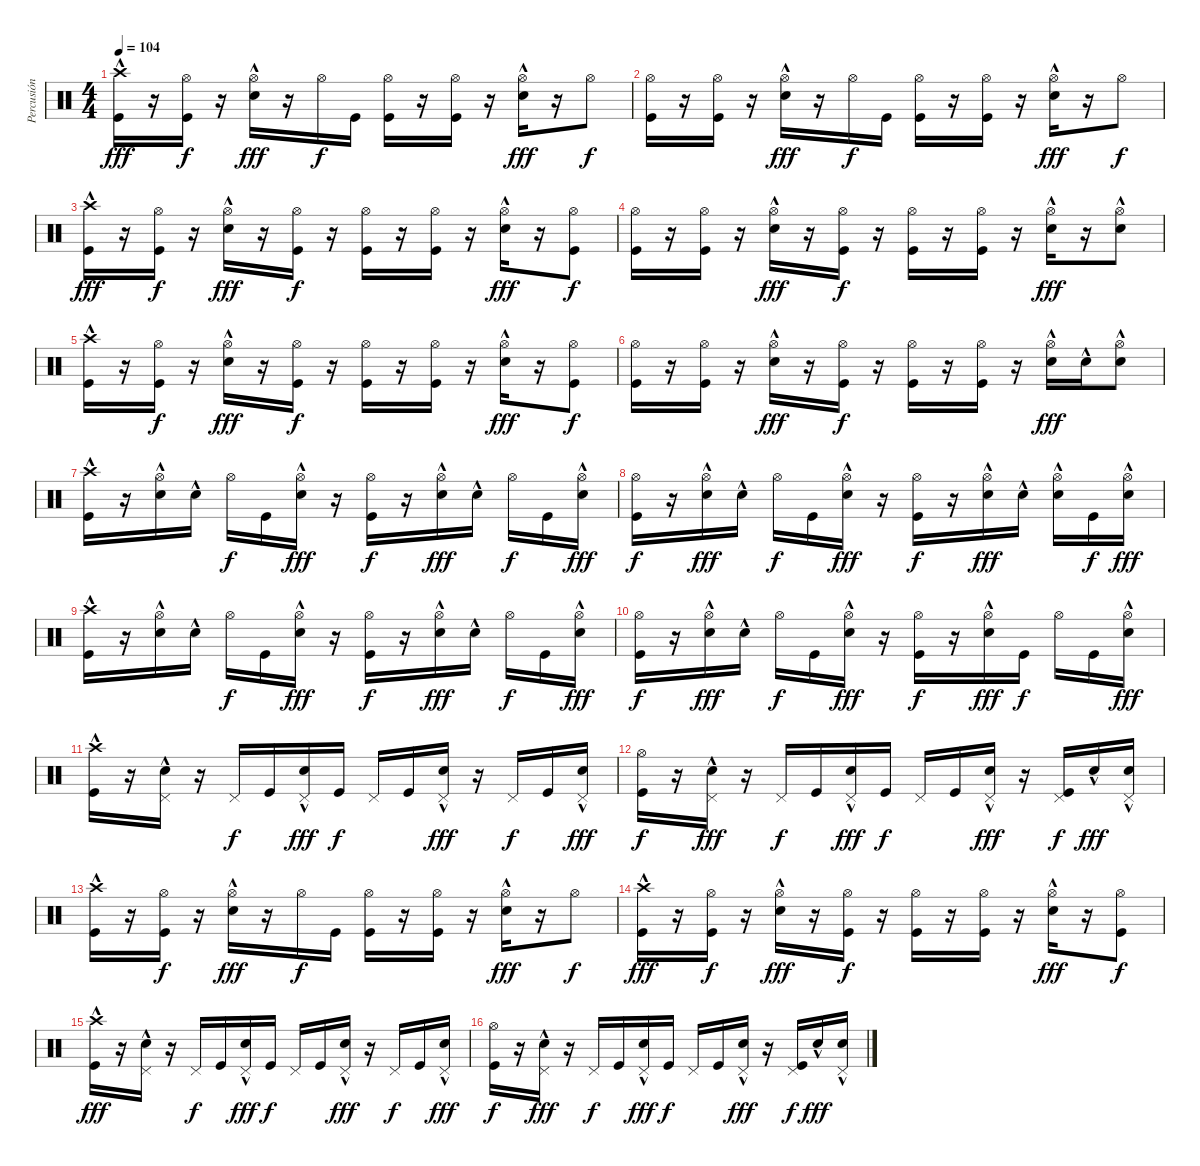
\track ("Percusión" "Percusión") {instrument percussion}
\staff {score}
\articulation defaults
\ts (4 4)
\tempo 104
\clef neutral
\ks c
("Crash high (hit)"{hac} "Kick (hit)").16{dy fff} r.16 ("Hi-Hat (open)" "Kick (hit)").16{dy f} r.16 ("Hi-Hat (open)" "Snare (hit) 2"{hac}).16{dy fff} r.16 "Hi-Hat (open)".16{dy f} "Kick (hit)".16 ("Hi-Hat (open)" "Kick (hit)").16 r.16 ("Hi-Hat (open)" "Kick (hit)").16 r.16 ("Hi-Hat (open)" "Snare (hit) 2"{hac}).16{dy fff} r.16 "Hi-Hat (open)".8{dy f} |
("Hi-Hat (open)" "Kick (hit)").16 r.16 ("Hi-Hat (open)" "Kick (hit)").16 r.16 ("Hi-Hat (open)" "Snare (hit) 2"{hac}).16{dy fff} r.16 "Hi-Hat (open)".16{dy f} "Kick (hit)".16 ("Hi-Hat (open)" "Kick (hit)").16 r.16 ("Hi-Hat (open)" "Kick (hit)").16 r.16 ("Hi-Hat (open)" "Snare (hit) 2"{hac}).16{dy fff} r.16 "Hi-Hat (open)".8{dy f} |
("Crash high (hit)"{hac} "Kick (hit)").16{dy fff} r.16 ("Hi-Hat (open)" "Kick (hit)").16{dy f} r.16 ("Hi-Hat (open)" "Snare (hit) 2"{hac}).16{dy fff} r.16 ("Hi-Hat (open)" "Kick (hit)").16{dy f} r.16 ("Hi-Hat (open)" "Kick (hit)").16 r.16 ("Hi-Hat (open)" "Kick (hit)").16 r.16 ("Hi-Hat (open)" "Snare (hit) 2"{hac}).16{dy fff} r.16 ("Hi-Hat (open)" "Kick (hit)").8{dy f} |
("Hi-Hat (open)" "Kick (hit)").16 r.16 ("Hi-Hat (open)" "Kick (hit)").16 r.16 ("Hi-Hat (open)" "Snare (hit) 2"{hac}).16{dy fff} r.16 ("Hi-Hat (open)" "Kick (hit)").16{dy f} r.16 ("Hi-Hat (open)" "Kick (hit)").16 r.16 ("Hi-Hat (open)" "Kick (hit)").16 r.16 ("Hi-Hat (open)" "Snare (hit) 2"{hac}).16{dy fff} r.16 ("Hi-Hat (open)" "Snare (hit) 2"{hac}).8 |
("Crash high (hit)"{hac} "Kick (hit)").16 r.16 ("Hi-Hat (open)" "Kick (hit)").16{dy f} r.16 ("Hi-Hat (open)" "Snare (hit) 2"{hac}).16{dy fff} r.16 ("Hi-Hat (open)" "Kick (hit)").16{dy f} r.16 ("Hi-Hat (open)" "Kick (hit)").16 r.16 ("Hi-Hat (open)" "Kick (hit)").16 r.16 ("Hi-Hat (open)" "Snare (hit) 2"{hac}).16{dy fff} r.16 ("Hi-Hat (open)" "Kick (hit)").8{dy f} |
("Hi-Hat (open)" "Kick (hit)").16 r.16 ("Hi-Hat (open)" "Kick (hit)").16 r.16 ("Hi-Hat (open)" "Snare (hit) 2"{hac}).16{dy fff} r.16 ("Hi-Hat (open)" "Kick (hit)").16{dy f} r.16 ("Hi-Hat (open)" "Kick (hit)").16 r.16 ("Hi-Hat (open)" "Kick (hit)").16 r.16 ("Hi-Hat (open)" "Snare (hit) 2"{hac}).16{dy fff} "Snare (hit) 2"{hac}.16 ("Hi-Hat (open)" "Snare (hit) 2"{hac}).8 |
("Crash high (hit)"{hac} "Kick (hit)").16 r.16 ("Hi-Hat (open)" "Snare (hit) 2"{hac}).16 "Snare (hit) 2"{hac}.16 "Hi-Hat (open)".16{dy f} "Kick (hit)".16 ("Hi-Hat (open)" "Snare (hit) 2"{hac}).16{dy fff} r.16 ("Hi-Hat (open)" "Kick (hit)").16{dy f} r.16 ("Hi-Hat (open)" "Snare (hit) 2"{hac}).16{dy fff} "Snare (hit) 2"{hac}.16 "Hi-Hat (open)".16{dy f} "Kick (hit)".16 ("Hi-Hat (open)" "Snare (hit) 2"{hac}).16{dy fff} |
("Hi-Hat (open)" "Kick (hit)").16{dy f} r.16 ("Hi-Hat (open)" "Snare (hit) 2"{hac}).16{dy fff} "Snare (hit) 2"{hac}.16 "Hi-Hat (open)".16{dy f} "Kick (hit)".16 ("Hi-Hat (open)" "Snare (hit) 2"{hac}).16{dy fff} r.16 ("Hi-Hat (open)" "Kick (hit)").16{dy f} r.16 ("Hi-Hat (open)" "Snare (hit) 2"{hac}).16{dy fff} "Snare (hit) 2"{hac}.16 ("Hi-Hat (open)" "Snare (hit) 2"{hac}).16 "Kick (hit)".16{dy f} ("Hi-Hat (open)" "Snare (hit) 2"{hac}).16{dy fff} |
("Crash high (hit)"{hac} "Kick (hit)").16 r.16 ("Hi-Hat (open)" "Snare (hit) 2"{hac}).16 "Snare (hit) 2"{hac}.16 "Hi-Hat (open)".16{dy f} "Kick (hit)".16 ("Hi-Hat (open)" "Snare (hit) 2"{hac}).16{dy fff} r.16 ("Hi-Hat (open)" "Kick (hit)").16{dy f} r.16 ("Hi-Hat (open)" "Snare (hit) 2"{hac}).16{dy fff} "Snare (hit) 2"{hac}.16 "Hi-Hat (open)".16{dy f} "Kick (hit)".16 ("Hi-Hat (open)" "Snare (hit) 2"{hac}).16{dy fff} |
("Hi-Hat (open)" "Kick (hit)").16{dy f} r.16 ("Hi-Hat (open)" "Snare (hit) 2"{hac}).16{dy fff} "Snare (hit) 2"{hac}.16 "Hi-Hat (open)".16{dy f} "Kick (hit)".16 ("Hi-Hat (open)" "Snare (hit) 2"{hac}).16{dy fff} r.16 ("Hi-Hat (open)" "Kick (hit)").16{dy f} r.16 ("Hi-Hat (open)" "Snare (hit) 2"{hac}).16{dy fff} "Kick (hit)".16{dy f} "Hi-Hat (open)".16 "Kick (hit)".16 ("Hi-Hat (open)" "Snare (hit) 2"{hac}).16{dy fff} |
("Crash high (hit)"{hac} "Kick (hit)").16 r.16 ("Pedal Hi-Hat (hit)" "Snare (hit) 2"{hac}).16 r.16 "Pedal Hi-Hat (hit)".16{dy f} "Kick (hit)".16 ("Pedal Hi-Hat (hit)" "Snare (hit) 2"{hac}).16{dy fff} "Kick (hit)".16{dy f} "Pedal Hi-Hat (hit)".16 "Kick (hit)".16 ("Pedal Hi-Hat (hit)" "Snare (hit) 2"{hac}).16{dy fff} r.16 "Pedal Hi-Hat (hit)".16{dy f} "Kick (hit)".16 ("Pedal Hi-Hat (hit)" "Snare (hit) 2"{hac}).16{dy fff} |
("Hi-Hat (open)" "Kick (hit)").16{dy f} r.16 ("Pedal Hi-Hat (hit)" "Snare (hit) 2"{hac}).16{dy fff} r.16 "Pedal Hi-Hat (hit)".16{dy f} "Kick (hit)".16 ("Pedal Hi-Hat (hit)" "Snare (hit) 2"{hac}).16{dy fff} "Kick (hit)".16{dy f} "Pedal Hi-Hat (hit)".16 "Kick (hit)".16 ("Pedal Hi-Hat (hit)" "Snare (hit) 2"{hac}).16{dy fff} r.16 ("Pedal Hi-Hat (hit)" "Kick (hit)").16{dy f} "Snare (hit) 2"{hac}.16{dy fff} ("Pedal Hi-Hat (hit)" "Snare (hit) 2"{hac}).16 |
("Crash high (hit)"{hac} "Kick (hit)").16 r.16 ("Hi-Hat (open)" "Kick (hit)").16{dy f} r.16 ("Hi-Hat (open)" "Snare (hit) 2"{hac}).16{dy fff} r.16 "Hi-Hat (open)".16{dy f} "Kick (hit)".16 ("Hi-Hat (open)" "Kick (hit)").16 r.16 ("Hi-Hat (open)" "Kick (hit)").16 r.16 ("Hi-Hat (open)" "Snare (hit) 2"{hac}).16{dy fff} r.16 "Hi-Hat (open)".8{dy f} |
("Crash high (hit)"{hac} "Kick (hit)").16{dy fff} r.16 ("Hi-Hat (open)" "Kick (hit)").16{dy f} r.16 ("Hi-Hat (open)" "Snare (hit) 2"{hac}).16{dy fff} r.16 ("Hi-Hat (open)" "Kick (hit)").16{dy f} r.16 ("Hi-Hat (open)" "Kick (hit)").16 r.16 ("Hi-Hat (open)" "Kick (hit)").16 r.16 ("Hi-Hat (open)" "Snare (hit) 2"{hac}).16{dy fff} r.16 ("Hi-Hat (open)" "Kick (hit)").8{dy f} |
("Crash high (hit)"{hac} "Kick (hit)").16{dy fff} r.16 ("Pedal Hi-Hat (hit)" "Snare (hit) 2"{hac}).16 r.16 "Pedal Hi-Hat (hit)".16{dy f} "Kick (hit)".16 ("Pedal Hi-Hat (hit)" "Snare (hit) 2"{hac}).16{dy fff} "Kick (hit)".16{dy f} "Pedal Hi-Hat (hit)".16 "Kick (hit)".16 ("Pedal Hi-Hat (hit)" "Snare (hit) 2"{hac}).16{dy fff} r.16 "Pedal Hi-Hat (hit)".16{dy f} "Kick (hit)".16 ("Pedal Hi-Hat (hit)" "Snare (hit) 2"{hac}).16{dy fff} |
("Hi-Hat (open)" "Kick (hit)").16{dy f} r.16 ("Pedal Hi-Hat (hit)" "Snare (hit) 2"{hac}).16{dy fff} r.16 "Pedal Hi-Hat (hit)".16{dy f} "Kick (hit)".16 ("Pedal Hi-Hat (hit)" "Snare (hit) 2"{hac}).16{dy fff} "Kick (hit)".16{dy f} "Pedal Hi-Hat (hit)".16 "Kick (hit)".16 ("Pedal Hi-Hat (hit)" "Snare (hit) 2"{hac}).16{dy fff} r.16 ("Pedal Hi-Hat (hit)" "Kick (hit)").16{dy f} "Snare (hit) 2"{hac}.16{dy fff} ("Pedal Hi-Hat (hit)" "Snare (hit) 2"{hac}).16
